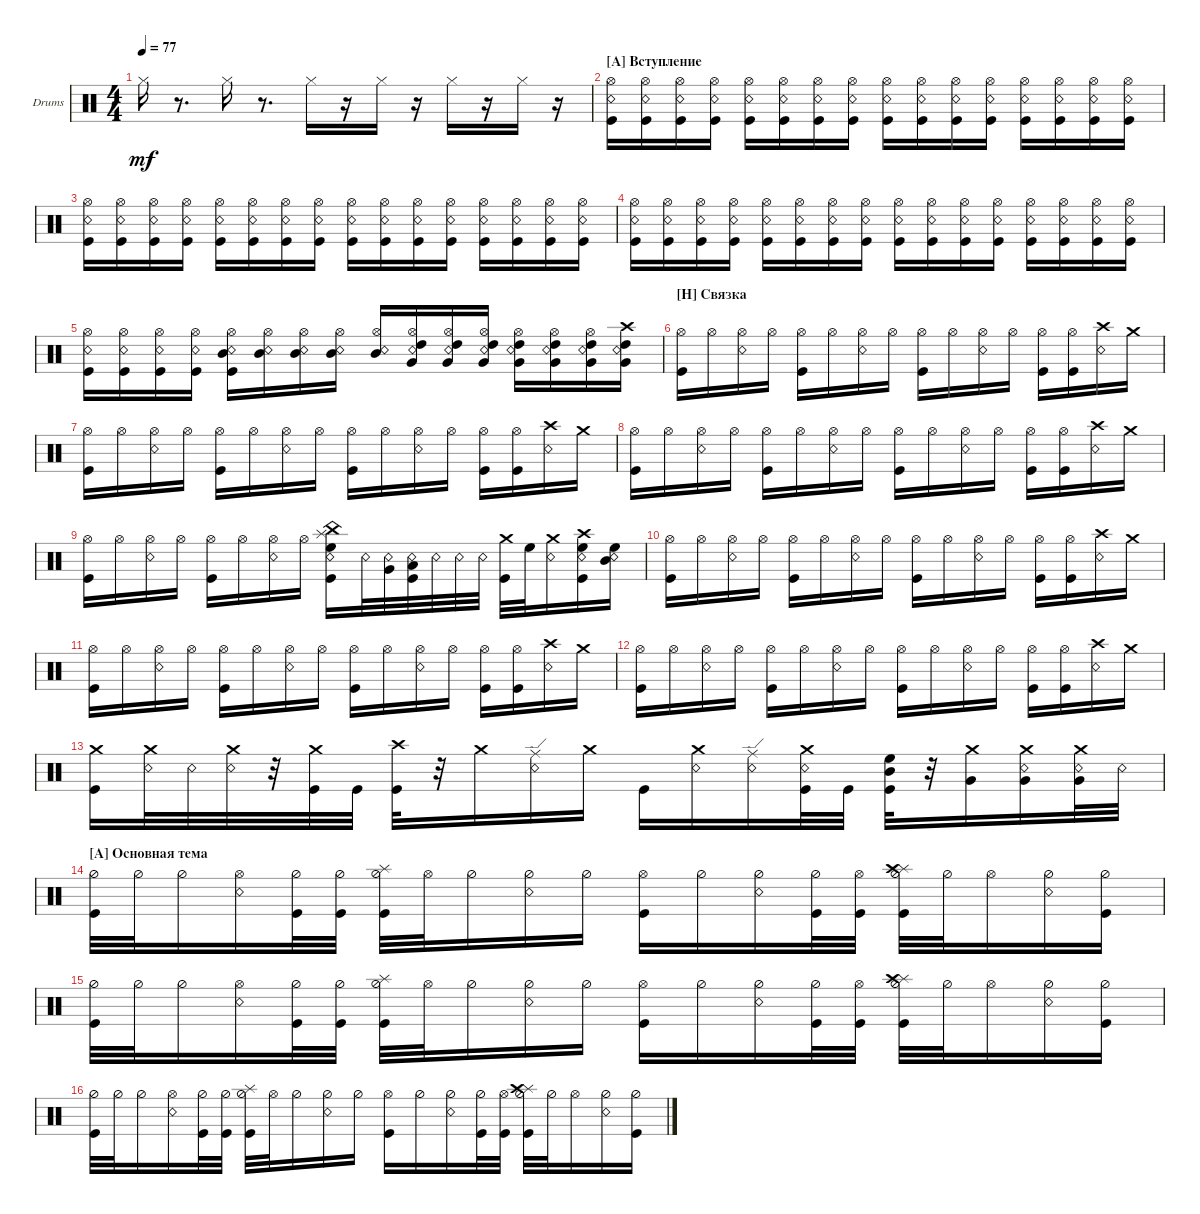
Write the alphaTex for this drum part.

\bracketExtendMode groupsimilarinstruments
\firstSystemTrackNameOrientation horizontal
\otherSystemsTrackNameOrientation horizontal
\track ("Drumkit" "Drums") {instrument percussion}
\staff {score}
\articulation defaults
\ts (4 4)
\tempo 77
\clef neutral
\ks c "Hi-Hat (closed)".16{dy mf}
r.8{d} "Hi-Hat (closed)".16 r.8{d} "Hi-Hat (closed)".16 r.16 "Hi-Hat (closed)".16 r.16 "Hi-Hat (closed)".16 r.16 "Hi-Hat (closed)".16 r.16 |
\section ("A" "Вступление")
("Snare (rim shot)" "Kick (hit)" "Hi-Hat (open)").16 ("Kick (hit)" "Snare (rim shot)" "Hi-Hat (open)").16 ("Snare (rim shot)" "Kick (hit)" "Hi-Hat (open)").16 ("Kick (hit)" "Snare (rim shot)" "Hi-Hat (open)").16 ("Snare (rim shot)" "Kick (hit)" "Hi-Hat (open)").16 ("Kick (hit)" "Snare (rim shot)" "Hi-Hat (open)").16 ("Snare (rim shot)" "Kick (hit)" "Hi-Hat (open)").16 ("Kick (hit)" "Snare (rim shot)" "Hi-Hat (open)").16 ("Snare (rim shot)" "Kick (hit)" "Hi-Hat (open)").16 ("Kick (hit)" "Snare (rim shot)" "Hi-Hat (open)").16 ("Snare (rim shot)" "Kick (hit)" "Hi-Hat (open)").16 ("Kick (hit)" "Snare (rim shot)" "Hi-Hat (open)").16 ("Snare (rim shot)" "Kick (hit)" "Hi-Hat (open)").16 ("Kick (hit)" "Snare (rim shot)" "Hi-Hat (open)").16 ("Snare (rim shot)" "Kick (hit)" "Hi-Hat (open)").16 ("Kick (hit)" "Snare (rim shot)" "Hi-Hat (open)").16 |
("Snare (rim shot)" "Kick (hit)" "Hi-Hat (open)").16 ("Kick (hit)" "Snare (rim shot)" "Hi-Hat (open)").16 ("Snare (rim shot)" "Kick (hit)" "Hi-Hat (open)").16 ("Kick (hit)" "Snare (rim shot)" "Hi-Hat (open)").16 ("Snare (rim shot)" "Kick (hit)" "Hi-Hat (open)").16 ("Kick (hit)" "Snare (rim shot)" "Hi-Hat (open)").16 ("Snare (rim shot)" "Kick (hit)" "Hi-Hat (open)").16 ("Kick (hit)" "Snare (rim shot)" "Hi-Hat (open)").16 ("Snare (rim shot)" "Kick (hit)" "Hi-Hat (open)").16 ("Kick (hit)" "Snare (rim shot)" "Hi-Hat (open)").16 ("Snare (rim shot)" "Kick (hit)" "Hi-Hat (open)").16 ("Kick (hit)" "Snare (rim shot)" "Hi-Hat (open)").16 ("Snare (rim shot)" "Kick (hit)" "Hi-Hat (open)").16 ("Kick (hit)" "Snare (rim shot)" "Hi-Hat (open)").16 ("Snare (rim shot)" "Kick (hit)" "Hi-Hat (open)").16 ("Kick (hit)" "Snare (rim shot)" "Hi-Hat (open)").16 |
("Snare (rim shot)" "Kick (hit)" "Hi-Hat (open)").16 ("Kick (hit)" "Snare (rim shot)" "Hi-Hat (open)").16 ("Snare (rim shot)" "Kick (hit)" "Hi-Hat (open)").16 ("Kick (hit)" "Snare (rim shot)" "Hi-Hat (open)").16 ("Snare (rim shot)" "Kick (hit)" "Hi-Hat (open)").16 ("Kick (hit)" "Snare (rim shot)" "Hi-Hat (open)").16 ("Snare (rim shot)" "Kick (hit)" "Hi-Hat (open)").16 ("Kick (hit)" "Snare (rim shot)" "Hi-Hat (open)").16 ("Snare (rim shot)" "Kick (hit)" "Hi-Hat (open)").16 ("Kick (hit)" "Snare (rim shot)" "Hi-Hat (open)").16 ("Snare (rim shot)" "Kick (hit)" "Hi-Hat (open)").16 ("Kick (hit)" "Snare (rim shot)" "Hi-Hat (open)").16 ("Snare (rim shot)" "Kick (hit)" "Hi-Hat (open)").16 ("Kick (hit)" "Snare (rim shot)" "Hi-Hat (open)").16 ("Snare (rim shot)" "Kick (hit)" "Hi-Hat (open)").16 ("Kick (hit)" "Snare (rim shot)" "Hi-Hat (open)").16 |
("Snare (rim shot)" "Kick (hit)" "Hi-Hat (open)").16 ("Kick (hit)" "Snare (rim shot)" "Hi-Hat (open)").16 ("Snare (rim shot)" "Kick (hit)" "Hi-Hat (open)").16 ("Kick (hit)" "Snare (rim shot)" "Hi-Hat (open)").16 ("Snare (rim shot)" "Kick (hit)" "Hi-Hat (open)" "Mid Tom (hit)").16 ("Snare (rim shot)" "Hi-Hat (open)" "Mid Tom (hit)").16 ("Snare (rim shot)" "Hi-Hat (open)" "Mid Tom (hit)").16 ("Snare (rim shot)" "Hi-Hat (open)" "Mid Tom (hit)").16 ("Snare (rim shot)" "Hi-Hat (open)" "Mid Tom (hit)").16 ("Snare (rim shot)" "Hi-Hat (open)" "High Tom (hit)" "Very Low Tom (hit)").16 ("Snare (rim shot)" "Hi-Hat (open)" "High Tom (hit)" "Very Low Tom (hit)").16 ("Snare (rim shot)" "Hi-Hat (open)" "High Tom (hit)" "Very Low Tom (hit)").16 ("Snare (rim shot)" "Hi-Hat (open)" "High Tom (hit)" "Very Low Tom (hit)").16 ("Snare (rim shot)" "Hi-Hat (open)" "High Tom (hit)" "Very Low Tom (hit)").16 ("Snare (rim shot)" "Hi-Hat (open)" "High Tom (hit)" "Very Low Tom (hit)").16 ("Snare (rim shot)" "High Tom (hit)" "Very Low Tom (hit)" "Crash high (hit)").16 |
\section ("H" "Связка")
("Kick (hit)" "Hi-Hat (open)").16 "Hi-Hat (open)".16 ("Snare (rim shot)" "Hi-Hat (open)").16 "Hi-Hat (open)".16 ("Kick (hit)" "Hi-Hat (open)").16 "Hi-Hat (open)".16 ("Snare (rim shot)" "Hi-Hat (open)").16 "Hi-Hat (open)".16 ("Kick (hit)" "Hi-Hat (open)").16 "Hi-Hat (open)".16 ("Snare (rim shot)" "Hi-Hat (open)").16 "Hi-Hat (open)".16 ("Kick (hit)" "Hi-Hat (open)").16 ("Hi-Hat (open)" "Kick (hit)").16 ("Snare (rim shot)" "Crash high (hit)").16 "Crash medium (hit)".16 |
("Kick (hit)" "Hi-Hat (open)").16 "Hi-Hat (open)".16 ("Snare (rim shot)" "Hi-Hat (open)").16 "Hi-Hat (open)".16 ("Kick (hit)" "Hi-Hat (open)").16 "Hi-Hat (open)".16 ("Snare (rim shot)" "Hi-Hat (open)").16 "Hi-Hat (open)".16 ("Kick (hit)" "Hi-Hat (open)").16 "Hi-Hat (open)".16 ("Snare (rim shot)" "Hi-Hat (open)").16 "Hi-Hat (open)".16 ("Kick (hit)" "Hi-Hat (open)").16 ("Hi-Hat (open)" "Kick (hit)").16 ("Snare (rim shot)" "Crash high (hit)").16 "Crash medium (hit)".16 |
("Kick (hit)" "Hi-Hat (open)").16 "Hi-Hat (open)".16 ("Snare (rim shot)" "Hi-Hat (open)").16 "Hi-Hat (open)".16 ("Kick (hit)" "Hi-Hat (open)").16 "Hi-Hat (open)".16 ("Snare (rim shot)" "Hi-Hat (open)").16 "Hi-Hat (open)".16 ("Kick (hit)" "Hi-Hat (open)").16 "Hi-Hat (open)".16 ("Snare (rim shot)" "Hi-Hat (open)").16 "Hi-Hat (open)".16 ("Kick (hit)" "Hi-Hat (open)").16 ("Hi-Hat (open)" "Kick (hit)").16 ("Snare (rim shot)" "Crash high (hit)").16 "Crash medium (hit)".16 |
("Kick (hit)" "Hi-Hat (open)").16 "Hi-Hat (open)".16 ("Snare (rim shot)" "Hi-Hat (open)").16 "Hi-Hat (open)".16 ("Kick (hit)" "Hi-Hat (open)").16 "Hi-Hat (open)".16 ("Snare (rim shot)" "Hi-Hat (open)").16 "Hi-Hat (open)".16 ("Kick (hit)" "Snare (rim shot)" "High Floor Tom (hit)" "Splash (hit)" "China (hit)").16 "Snare (rim shot)".32 ("Very Low Tom (hit)" "Snare (rim shot)").32 ("Kick (hit)" "Low Tom (hit)" "Snare (rim shot)").32 "Snare (rim shot)".32 "Snare (rim shot)".32 "Snare (rim shot)".32 ("Kick (hit)" "Crash medium (hit)").32 "High Floor Tom (hit)".32 ("Snare (rim shot)" "Crash medium (hit)").16 ("Snare (rim shot)" "Kick (hit)" "Crash high (hit)" "High Floor Tom (hit)").16 ("Snare (rim shot)" "High Floor Tom (hit)" "Mid Tom (hit)").16 |
("Kick (hit)" "Hi-Hat (open)").16 "Hi-Hat (open)".16 ("Snare (rim shot)" "Hi-Hat (open)").16 "Hi-Hat (open)".16 ("Kick (hit)" "Hi-Hat (open)").16 "Hi-Hat (open)".16 ("Snare (rim shot)" "Hi-Hat (open)").16 "Hi-Hat (open)".16 ("Kick (hit)" "Hi-Hat (open)").16 "Hi-Hat (open)".16 ("Snare (rim shot)" "Hi-Hat (open)").16 "Hi-Hat (open)".16 ("Kick (hit)" "Hi-Hat (open)").16 ("Hi-Hat (open)" "Kick (hit)").16 ("Snare (rim shot)" "Crash high (hit)").16 "Crash medium (hit)".16 |
("Kick (hit)" "Hi-Hat (open)").16 "Hi-Hat (open)".16 ("Snare (rim shot)" "Hi-Hat (open)").16 "Hi-Hat (open)".16 ("Kick (hit)" "Hi-Hat (open)").16 "Hi-Hat (open)".16 ("Snare (rim shot)" "Hi-Hat (open)").16 "Hi-Hat (open)".16 ("Kick (hit)" "Hi-Hat (open)").16 "Hi-Hat (open)".16 ("Snare (rim shot)" "Hi-Hat (open)").16 "Hi-Hat (open)".16 ("Kick (hit)" "Hi-Hat (open)").16 ("Hi-Hat (open)" "Kick (hit)").16 ("Snare (rim shot)" "Crash high (hit)").16 "Crash medium (hit)".16 |
("Kick (hit)" "Hi-Hat (open)").16 "Hi-Hat (open)".16 ("Snare (rim shot)" "Hi-Hat (open)").16 "Hi-Hat (open)".16 ("Kick (hit)" "Hi-Hat (open)").16 "Hi-Hat (open)".16 ("Snare (rim shot)" "Hi-Hat (open)").16 "Hi-Hat (open)".16 ("Kick (hit)" "Hi-Hat (open)").16 "Hi-Hat (open)".16 ("Snare (rim shot)" "Hi-Hat (open)").16 "Hi-Hat (open)".16 ("Kick (hit)" "Hi-Hat (open)").16 ("Hi-Hat (open)" "Kick (hit)").16 ("Snare (rim shot)" "Crash high (hit)").16 "Crash medium (hit)".16 |
("Kick (hit)" "Crash medium (hit)").16 ("Crash medium (hit)" "Snare (rim shot)").32 "Snare (rim shot)".32 ("Crash medium (hit)" "Snare (rim shot)").32 r.32 ("Crash medium (hit)" "Kick (hit)").32 "Kick (hit)".32 ("Kick (hit)" "Crash high (hit)").32 r.32 "Crash medium (hit)".16 ("Ride (edge)" "Snare (rim shot)").16 "Crash medium (hit)".16 "Kick (hit)".16 ("Crash medium (hit)" "Snare (rim shot)").16 ("Ride (edge)" "Snare (rim shot)").16 ("Crash medium (hit)" "Kick (hit)" "Snare (rim shot)").32 "Kick (hit)".32 ("Kick (hit)" "High Floor Tom (hit)" "Mid Tom (hit)").32 r.32 ("Crash medium (hit)" "Very Low Tom (hit)").16 ("Crash medium (hit)" "Snare (rim shot)" "Very Low Tom (hit)").16 ("Crash medium (hit)" "Snare (rim shot)" "Very Low Tom (hit)").32 "Snare (rim shot)".32 |
\section ("A" "Основная тема")
("Kick (hit)" "Hi-Hat (half)").32 "Hi-Hat (half)".32 "Hi-Hat (half)".16 ("Snare (rim shot)" "Hi-Hat (open)").16 ("Kick (hit)" "Hi-Hat (half)").32 ("Kick (hit)" "Hi-Hat (half)").32 ("Kick (hit)" "Hi-Hat (half)" "Splash (hit)").32 "Hi-Hat (open)".32 "Hi-Hat (half)".16 ("Snare (rim shot)" "Hi-Hat (half)").16 "Hi-Hat (half)".16 ("Kick (hit)" "Hi-Hat (open)").16 "Hi-Hat (half)".16 ("Snare (rim shot)" "Hi-Hat (half)").16 ("Kick (hit)" "Hi-Hat (half)").32 ("Kick (hit)" "Hi-Hat (open)").32 ("Kick (hit)" "Hi-Hat (half)" "Splash (hit)" "Crash high (hit)").32 "Hi-Hat (half)".32 "Hi-Hat (open)".16 ("Snare (rim shot)" "Hi-Hat (half)").16 ("Kick (hit)" "Hi-Hat (half)").16 |
("Kick (hit)" "Hi-Hat (half)").32 "Hi-Hat (half)".32 "Hi-Hat (half)".16 ("Snare (rim shot)" "Hi-Hat (open)").16 ("Kick (hit)" "Hi-Hat (half)").32 ("Kick (hit)" "Hi-Hat (half)").32 ("Kick (hit)" "Hi-Hat (half)" "Splash (hit)").32 "Hi-Hat (open)".32 "Hi-Hat (half)".16 ("Snare (rim shot)" "Hi-Hat (half)").16 "Hi-Hat (half)".16 ("Kick (hit)" "Hi-Hat (open)").16 "Hi-Hat (half)".16 ("Snare (rim shot)" "Hi-Hat (half)").16 ("Kick (hit)" "Hi-Hat (half)").32 ("Kick (hit)" "Hi-Hat (open)").32 ("Kick (hit)" "Hi-Hat (half)" "Splash (hit)" "Crash high (hit)").32 "Hi-Hat (half)".32 "Hi-Hat (open)".16 ("Snare (rim shot)" "Hi-Hat (half)").16 ("Kick (hit)" "Hi-Hat (half)").16 |
("Kick (hit)" "Hi-Hat (half)").32 "Hi-Hat (half)".32 "Hi-Hat (half)".16 ("Snare (rim shot)" "Hi-Hat (open)").16 ("Kick (hit)" "Hi-Hat (half)").32 ("Kick (hit)" "Hi-Hat (half)").32 ("Kick (hit)" "Hi-Hat (half)" "Splash (hit)").32 "Hi-Hat (open)".32 "Hi-Hat (half)".16 ("Snare (rim shot)" "Hi-Hat (half)").16 "Hi-Hat (half)".16 ("Kick (hit)" "Hi-Hat (open)").16 "Hi-Hat (half)".16 ("Snare (rim shot)" "Hi-Hat (half)").16 ("Kick (hit)" "Hi-Hat (half)").32 ("Kick (hit)" "Hi-Hat (open)").32 ("Kick (hit)" "Hi-Hat (half)" "Splash (hit)" "Crash high (hit)").32 "Hi-Hat (half)".32 "Hi-Hat (open)".16 ("Snare (rim shot)" "Hi-Hat (half)").16 ("Kick (hit)" "Hi-Hat (half)").16
